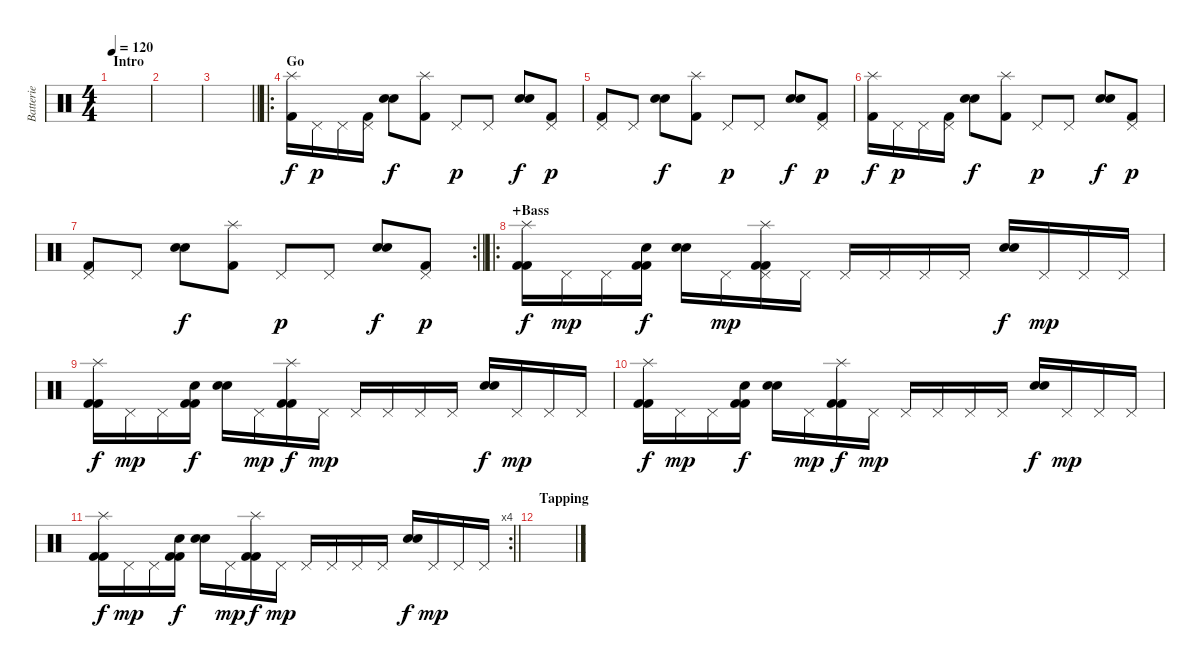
\track ("Batterie" "Batterie") {instrument percussion}
\staff {score}
\articulation defaults
\ts (4 4)
\section ("" "Intro")
\tempo 120
\clef neutral
\ks c
|
|
\barLineRight lightlight
|
\ro
\section ("" "Go")
("Splash (hit)" "Kick (hit) 2").16 "Pedal Hi-Hat (hit)".16{dy p} "Pedal Hi-Hat (hit)".16 ("Pedal Hi-Hat (hit)" "Kick (hit) 2").16 ("Hand Clap (hit)" "Electric Snare (hit)").8{dy f} ("Splash (hit)" "Kick (hit) 2").8 "Pedal Hi-Hat (hit)".8{dy p} "Pedal Hi-Hat (hit)".8 ("Hand Clap (hit)" "Electric Snare (hit)").8{dy f} ("Pedal Hi-Hat (hit)" "Kick (hit) 2").8{dy p} |
("Pedal Hi-Hat (hit)" "Kick (hit) 2").8 "Pedal Hi-Hat (hit)".8 ("Hand Clap (hit)" "Electric Snare (hit)").8{dy f} ("Splash (hit)" "Kick (hit) 2").8 "Pedal Hi-Hat (hit)".8{dy p} "Pedal Hi-Hat (hit)".8 ("Hand Clap (hit)" "Electric Snare (hit)").8{dy f} ("Pedal Hi-Hat (hit)" "Kick (hit) 2").8{dy p} |
("Splash (hit)" "Kick (hit) 2").16{dy f} "Pedal Hi-Hat (hit)".16{dy p} "Pedal Hi-Hat (hit)".16 ("Pedal Hi-Hat (hit)" "Kick (hit) 2").16 ("Hand Clap (hit)" "Electric Snare (hit)").8{dy f} ("Splash (hit)" "Kick (hit) 2").8 "Pedal Hi-Hat (hit)".8{dy p} "Pedal Hi-Hat (hit)".8 ("Hand Clap (hit)" "Electric Snare (hit)").8{dy f} ("Pedal Hi-Hat (hit)" "Kick (hit) 2").8{dy p} |
\rc 2
\barLineRight lightlight
("Pedal Hi-Hat (hit)" "Kick (hit) 2").8 "Pedal Hi-Hat (hit)".8 ("Hand Clap (hit)" "Electric Snare (hit)").8{dy f} ("Splash (hit)" "Kick (hit) 2").8 "Pedal Hi-Hat (hit)".8{dy p} "Pedal Hi-Hat (hit)".8 ("Hand Clap (hit)" "Electric Snare (hit)").8{dy f} ("Pedal Hi-Hat (hit)" "Kick (hit) 2").8{dy p} |
\ro
\section ("" "+Bass")
("Splash (hit)" "Kick (hit) 2" "Kick (hit) 2").16{dy f} "Pedal Hi-Hat (hit)".16{dy mp} "Pedal Hi-Hat (hit)".16 ("Electric Snare (hit)" "Kick (hit) 2" "Kick (hit) 2").16{dy f} ("Snare (hit) 2" "Hand Clap (hit)").16 "Pedal Hi-Hat (hit)".16{dy mp} ("Pedal Hi-Hat (hit)" "Splash (hit)" "Kick (hit) 2" "Kick (hit) 2").16 "Pedal Hi-Hat (hit)".16 "Pedal Hi-Hat (hit)".16 "Pedal Hi-Hat (hit)".16 "Pedal Hi-Hat (hit)".16 "Pedal Hi-Hat (hit)".16 ("Snare (hit) 2" "Hand Clap (hit)").16{dy f} "Pedal Hi-Hat (hit)".16{dy mp} "Pedal Hi-Hat (hit)".16 "Pedal Hi-Hat (hit)".16 |
("Splash (hit)" "Kick (hit) 2" "Kick (hit) 2").16{dy f} "Pedal Hi-Hat (hit)".16{dy mp} "Pedal Hi-Hat (hit)".16 ("Electric Snare (hit)" "Kick (hit) 2" "Kick (hit) 2").16{dy f} ("Snare (hit) 2" "Hand Clap (hit)").16 "Pedal Hi-Hat (hit)".16{dy mp} ("Splash (hit)" "Kick (hit) 2" "Kick (hit) 2").16{dy f} "Pedal Hi-Hat (hit)".16{dy mp} "Pedal Hi-Hat (hit)".16 "Pedal Hi-Hat (hit)".16 "Pedal Hi-Hat (hit)".16 "Pedal Hi-Hat (hit)".16 ("Snare (hit) 2" "Hand Clap (hit)").16{dy f} "Pedal Hi-Hat (hit)".16{dy mp} "Pedal Hi-Hat (hit)".16 "Pedal Hi-Hat (hit)".16 |
("Splash (hit)" "Kick (hit) 2" "Kick (hit) 2").16{dy f} "Pedal Hi-Hat (hit)".16{dy mp} "Pedal Hi-Hat (hit)".16 ("Electric Snare (hit)" "Kick (hit) 2" "Kick (hit) 2").16{dy f} ("Snare (hit) 2" "Hand Clap (hit)").16 "Pedal Hi-Hat (hit)".16{dy mp} ("Splash (hit)" "Kick (hit) 2" "Kick (hit) 2").16{dy f} "Pedal Hi-Hat (hit)".16{dy mp} "Pedal Hi-Hat (hit)".16 "Pedal Hi-Hat (hit)".16 "Pedal Hi-Hat (hit)".16 "Pedal Hi-Hat (hit)".16 ("Snare (hit) 2" "Hand Clap (hit)").16{dy f} "Pedal Hi-Hat (hit)".16{dy mp} "Pedal Hi-Hat (hit)".16 "Pedal Hi-Hat (hit)".16 |
\rc 4
\barLineRight lightlight
("Splash (hit)" "Kick (hit) 2" "Kick (hit) 2").16{dy f} "Pedal Hi-Hat (hit)".16{dy mp} "Pedal Hi-Hat (hit)".16 ("Electric Snare (hit)" "Kick (hit) 2" "Kick (hit) 2").16{dy f} ("Snare (hit) 2" "Hand Clap (hit)").16 "Pedal Hi-Hat (hit)".16{dy mp} ("Splash (hit)" "Kick (hit) 2" "Kick (hit) 2").16{dy f} "Pedal Hi-Hat (hit)".16{dy mp} "Pedal Hi-Hat (hit)".16 "Pedal Hi-Hat (hit)".16 "Pedal Hi-Hat (hit)".16 "Pedal Hi-Hat (hit)".16 ("Snare (hit) 2" "Hand Clap (hit)").16{dy f} "Pedal Hi-Hat (hit)".16{dy mp} "Pedal Hi-Hat (hit)".16 "Pedal Hi-Hat (hit)".16 |
\section ("" "Tapping")
